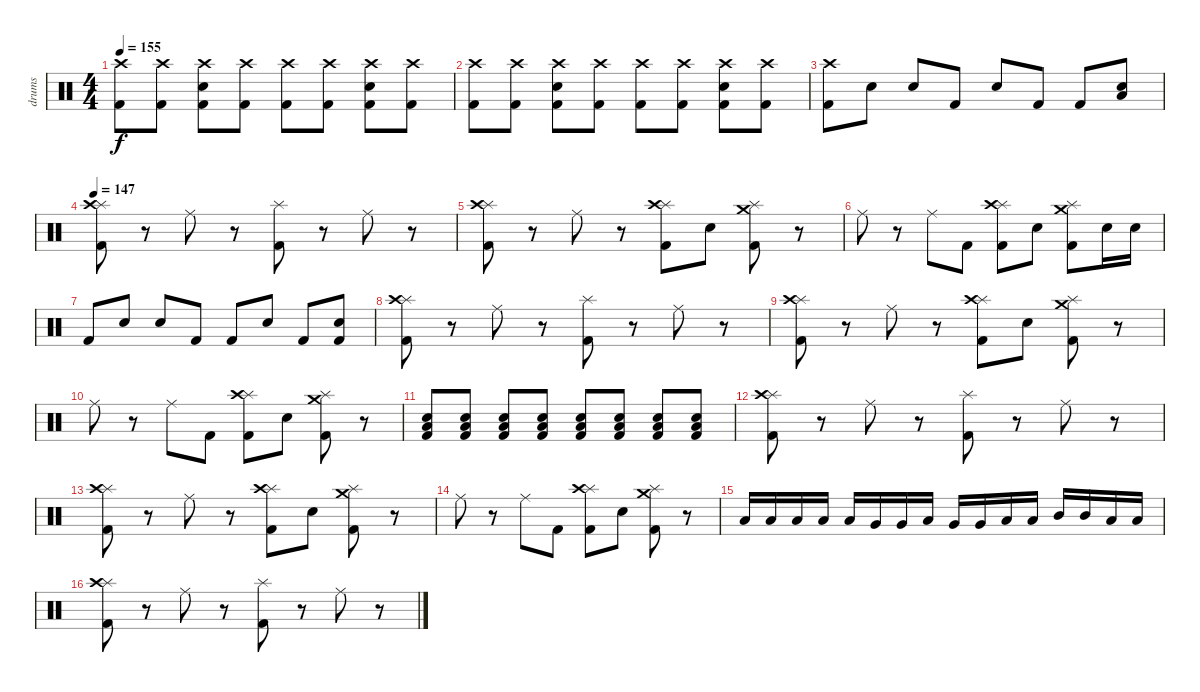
\track ("drums" "drums") {instrument percussion}
\staff {score}
\articulation defaults
\ts (4 4)
\tempo 155
\clef neutral
\ks c
("Crash high (hit)" "Kick (hit) 2").8{dy f} ("Crash high (hit)" "Kick (hit) 2").8 ("Crash high (hit)" "Snare (hit) 2" "Kick (hit) 2").8 ("Crash high (hit)" "Kick (hit) 2").8 ("Crash high (hit)" "Kick (hit) 2").8 ("Crash high (hit)" "Kick (hit) 2").8 ("Crash high (hit)" "Snare (hit) 2" "Kick (hit) 2").8 ("Crash high (hit)" "Kick (hit) 2").8 |
("Crash high (hit)" "Kick (hit) 2").8 ("Crash high (hit)" "Kick (hit) 2").8 ("Crash high (hit)" "Snare (hit) 2" "Kick (hit) 2").8 ("Crash high (hit)" "Kick (hit) 2").8 ("Crash high (hit)" "Kick (hit) 2").8 ("Crash high (hit)" "Kick (hit) 2").8 ("Crash high (hit)" "Snare (hit) 2" "Kick (hit) 2").8 ("Crash high (hit)" "Kick (hit) 2").8 |
("Crash high (hit)" "Kick (hit) 2").8 "Snare (hit) 2".8 "Snare (hit) 2".8 "Kick (hit) 2".8 "Snare (hit) 2".8 "Kick (hit) 2".8 "Kick (hit) 2".8 ("Snare (hit) 2" "Low Floor Tom (hit)").8 |
\tempo 147
("Splash (hit)" "Crash high (hit)" "Kick (hit) 2").8 r.8 "Ride (middle)".8 r.8 ("Splash (hit)" "Kick (hit) 2").8 r.8 "Ride (middle)".8 r.8 |
("Splash (hit)" "Crash high (hit)" "Kick (hit) 2").8 r.8 "Ride (middle)".8 r.8 ("Splash (hit)" "Crash high (hit)" "Kick (hit) 2").8 "Snare (hit) 2".8 ("Splash (hit)" "Crash medium (hit)" "Kick (hit) 2").8 r.8 |
"Ride (middle)".8 r.8 "Ride (middle)".8 "Kick (hit) 2".8 ("Splash (hit)" "Crash high (hit)" "Kick (hit) 2").8 "Snare (hit) 2".8 ("Splash (hit)" "Crash medium (hit)" "Kick (hit) 2").8 "Snare (hit) 2".16 "Snare (hit) 2".16 |
"Kick (hit) 2".8 "Snare (hit) 2".8 "Snare (hit) 2".8 "Kick (hit) 2".8 "Kick (hit) 2".8 "Snare (hit) 2".8 "Kick (hit) 2".8 ("Snare (hit) 2" "Kick (hit) 2").8 |
("Splash (hit)" "Crash high (hit)" "Kick (hit) 2").8 r.8 "Ride (middle)".8 r.8 ("Splash (hit)" "Kick (hit) 2").8 r.8 "Ride (middle)".8 r.8 |
("Splash (hit)" "Crash high (hit)" "Kick (hit) 2").8 r.8 "Ride (middle)".8 r.8 ("Splash (hit)" "Crash high (hit)" "Kick (hit) 2").8 "Snare (hit) 2".8 ("Splash (hit)" "Crash medium (hit)" "Kick (hit) 2").8 r.8 |
"Ride (middle)".8 r.8 "Ride (middle)".8 "Kick (hit) 2".8 ("Splash (hit)" "Crash high (hit)" "Kick (hit) 2").8 "Snare (hit) 2".8 ("Splash (hit)" "Crash medium (hit)" "Kick (hit) 2").8 r.8 |
("Snare (hit) 2" "Low Floor Tom (hit)" "Kick (hit) 2").8 ("Snare (hit) 2" "Low Floor Tom (hit)" "Kick (hit) 2").8 ("Snare (hit) 2" "Low Floor Tom (hit)" "Kick (hit) 2").8 ("Snare (hit) 2" "Low Floor Tom (hit)" "Kick (hit) 2").8 ("Snare (hit) 2" "Low Floor Tom (hit)" "Kick (hit) 2").8 ("Snare (hit) 2" "Low Floor Tom (hit)" "Kick (hit) 2").8 ("Snare (hit) 2" "Low Floor Tom (hit)" "Kick (hit) 2").8 ("Snare (hit) 2" "Low Floor Tom (hit)" "Kick (hit) 2").8 |
("Splash (hit)" "Crash high (hit)" "Kick (hit) 2").8 r.8 "Ride (middle)".8 r.8 ("Splash (hit)" "Kick (hit) 2").8 r.8 "Ride (middle)".8 r.8 |
("Splash (hit)" "Crash high (hit)" "Kick (hit) 2").8 r.8 "Ride (middle)".8 r.8 ("Splash (hit)" "Crash high (hit)" "Kick (hit) 2").8 "Snare (hit) 2".8 ("Splash (hit)" "Crash medium (hit)" "Kick (hit) 2").8 r.8 |
"Ride (middle)".8 r.8 "Ride (middle)".8 "Kick (hit) 2".8 ("Splash (hit)" "Crash high (hit)" "Kick (hit) 2").8 "Snare (hit) 2".8 ("Splash (hit)" "Crash medium (hit)" "Kick (hit) 2").8 r.8 |
"Low Floor Tom (hit)".16 "Low Floor Tom (hit)".16 "Low Floor Tom (hit)".16 "Low Floor Tom (hit)".16 "Low Floor Tom (hit)".16 "Very Low Tom (hit)".16 "Very Low Tom (hit)".16 "Low Tom (hit)".16 "Very Low Tom (hit)".16 "Very Low Tom (hit)".16 "Low Tom (hit)".16 "Low Tom (hit)".16 "Mid Tom (hit)".16 "Mid Tom (hit)".16 "Low Tom (hit)".16 "Low Tom (hit)".16 |
("Splash (hit)" "Crash high (hit)" "Kick (hit) 2").8 r.8 "Ride (middle)".8 r.8 ("Splash (hit)" "Kick (hit) 2").8 r.8 "Ride (middle)".8 r.8
